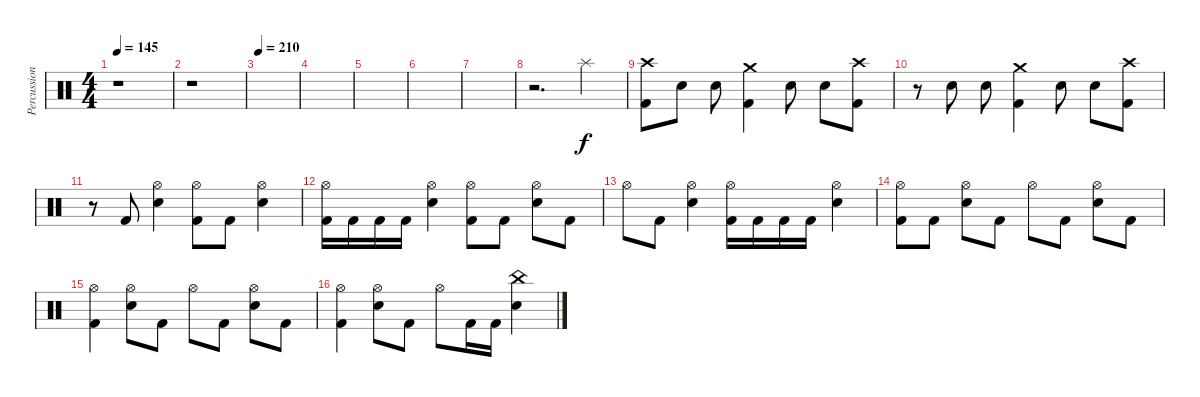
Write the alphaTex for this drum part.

\track ("Percussion" "Percussion") {instrument percussion}
\staff {score}
\articulation defaults
\ts (4 4)
\tempo 145
\clef neutral
\ks c
r.1{dy f} |
r.1 |
\tempo 210
|
|
|
|
|
r.2{d} "Splash (hit)".4 |
("Crash high (hit)" "Kick (hit) 2").8 "Electric Snare (hit)".8 "Electric Snare (hit)".8 ("Crash medium (hit)" "Kick (hit) 2").4 "Electric Snare (hit)".8 "Electric Snare (hit)".8 ("Crash high (hit)" "Kick (hit) 2").8 |
r.8 "Electric Snare (hit)".8 "Electric Snare (hit)".8 ("Crash medium (hit)" "Kick (hit) 2").4 "Electric Snare (hit)".8 "Electric Snare (hit)".8 ("Crash high (hit)" "Kick (hit) 2").8 |
r.8 "Kick (hit) 2".8 ("Hi-Hat (open)" "Electric Snare (hit)").4 ("Hi-Hat (open)" "Kick (hit) 2").8 "Kick (hit) 2".8 ("Hi-Hat (open)" "Electric Snare (hit)").4 |
("Hi-Hat (open)" "Kick (hit) 2").16 "Kick (hit) 2".16 "Kick (hit) 2".16 "Kick (hit) 2".16 ("Hi-Hat (open)" "Electric Snare (hit)").4 ("Hi-Hat (open)" "Kick (hit) 2").8 "Kick (hit) 2".8 ("Hi-Hat (open)" "Electric Snare (hit)").8 "Kick (hit) 2".8 |
"Hi-Hat (open)".8 "Kick (hit) 2".8 ("Hi-Hat (open)" "Electric Snare (hit)").4 ("Hi-Hat (open)" "Kick (hit) 2").16 "Kick (hit) 2".16 "Kick (hit) 2".16 "Kick (hit) 2".16 ("Hi-Hat (open)" "Electric Snare (hit)").4 |
("Hi-Hat (open)" "Kick (hit) 2").8 "Kick (hit) 2".8 ("Hi-Hat (open)" "Electric Snare (hit)").8 "Kick (hit) 2".8 "Hi-Hat (open)".8 "Kick (hit) 2".8 ("Hi-Hat (open)" "Electric Snare (hit)").8 "Kick (hit) 2".8 |
("Hi-Hat (open)" "Kick (hit) 2").4 ("Hi-Hat (open)" "Electric Snare (hit)").8 "Kick (hit) 2".8 "Hi-Hat (open)".8 "Kick (hit) 2".8 ("Hi-Hat (open)" "Electric Snare (hit)").8 "Kick (hit) 2".8 |
("Hi-Hat (open)" "Kick (hit) 2").4 ("Hi-Hat (open)" "Electric Snare (hit)").8 "Kick (hit) 2".8 "Hi-Hat (open)".8 "Kick (hit) 2".16 "Kick (hit) 2".16 ("China (hit)" "Electric Snare (hit)").4
